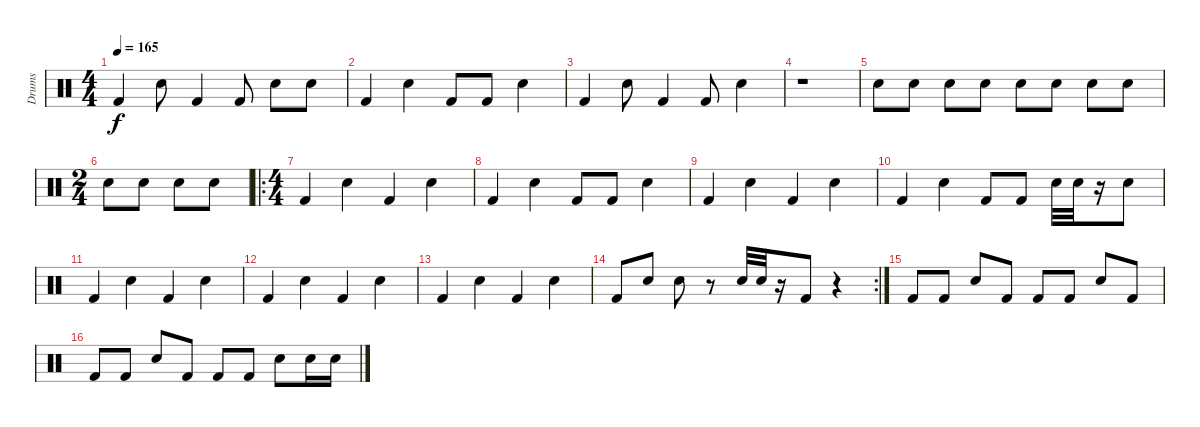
\track ("Drums" "Drums") {instrument percussion}
\staff {score}
\articulation defaults
\ts (4 4)
\tempo 165
\clef neutral
\ks c "Kick (hit) 2".4{dy f} "Snare (hit) 2".8 "Kick (hit) 2".4 "Kick (hit) 2".8 "Snare (hit) 2".8 "Snare (hit) 2".8
|
"Kick (hit) 2".4 "Snare (hit) 2".4 "Kick (hit) 2".8 "Kick (hit) 2".8 "Snare (hit) 2".4 |
"Kick (hit) 2".4 "Snare (hit) 2".8 "Kick (hit) 2".4 "Kick (hit) 2".8 "Snare (hit) 2".4 |
r.1 |
"Snare (hit) 2".8 "Snare (hit) 2".8 "Snare (hit) 2".8 "Snare (hit) 2".8 "Snare (hit) 2".8 "Snare (hit) 2".8 "Snare (hit) 2".8 "Snare (hit) 2".8 |
\ts (2 4)
"Snare (hit) 2".8 "Snare (hit) 2".8 "Snare (hit) 2".8 "Snare (hit) 2".8 |
\ro
\ts (4 4)
"Kick (hit) 2".4 "Snare (hit) 2".4 "Kick (hit) 2".4 "Snare (hit) 2".4 |
"Kick (hit) 2".4 "Snare (hit) 2".4 "Kick (hit) 2".8 "Kick (hit) 2".8 "Snare (hit) 2".4 |
"Kick (hit) 2".4 "Snare (hit) 2".4 "Kick (hit) 2".4 "Snare (hit) 2".4 |
"Kick (hit) 2".4 "Snare (hit) 2".4 "Kick (hit) 2".8 "Kick (hit) 2".8 "Snare (hit) 2".32 "Snare (hit) 2".32 r.16 "Snare (hit) 2".8 |
"Kick (hit) 2".4 "Snare (hit) 2".4 "Kick (hit) 2".4 "Snare (hit) 2".4 |
"Kick (hit) 2".4 "Snare (hit) 2".4 "Kick (hit) 2".4 "Snare (hit) 2".4 |
"Kick (hit) 2".4 "Snare (hit) 2".4 "Kick (hit) 2".4 "Snare (hit) 2".4 |
\rc 2 "Kick (hit) 2".8 "Snare (hit) 2".8 "Snare (hit) 2".8
r.8 "Snare (hit) 2".32 "Snare (hit) 2".32 r.16 "Kick (hit) 2".8 r.4 |
"Kick (hit) 2".8 "Kick (hit) 2".8 "Snare (hit) 2".8 "Kick (hit) 2".8 "Kick (hit) 2".8 "Kick (hit) 2".8 "Snare (hit) 2".8 "Kick (hit) 2".8 |
"Kick (hit) 2".8 "Kick (hit) 2".8 "Snare (hit) 2".8 "Kick (hit) 2".8 "Kick (hit) 2".8 "Kick (hit) 2".8 "Snare (hit) 2".8 "Snare (hit) 2".16 "Snare (hit) 2".16
